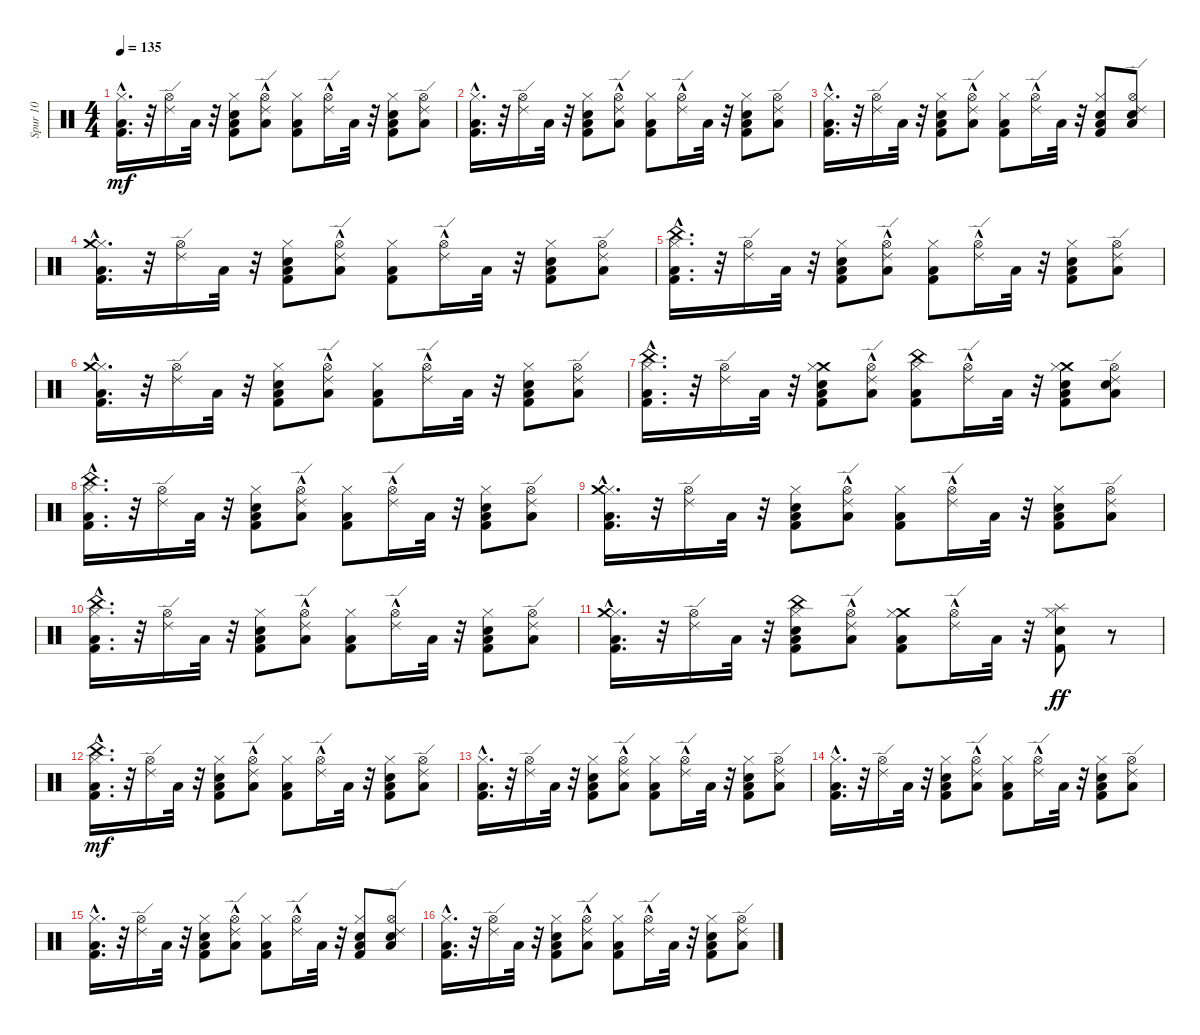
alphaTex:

\track ("Spur 10" "Spur 10") {instrument percussion}
\staff {score}
\articulation defaults
\ts (4 4)
\tempo 135
\clef neutral
\ks c
("Kick (hit) 2" "Low Tom (hit)" "Hi-Hat (closed)"{hac}).16{d dy mf} r.32 ("Ride (edge) 2" "Hi-Hat (open)").16 "Low Tom (hit)".32 r.32 ("Kick (hit) 2" "Hand Clap (hit)" "Low Tom (hit)" "Hi-Hat (closed)").8 ("Low Tom (hit)" "Hi-Hat (open)" "Ride (edge) 2"{hac}).8 ("Kick (hit) 2" "Low Tom (hit)" "Hi-Hat (closed)").8 ("Hi-Hat (open)" "Ride (edge) 2"{hac}).16 "Low Tom (hit)".32 r.32 ("Kick (hit) 2" "Hand Clap (hit)" "Low Tom (hit)" "Hi-Hat (closed)").8 ("Low Tom (hit)" "Hi-Hat (open)" "Ride (edge) 2").8 |
("Kick (hit) 2" "Low Tom (hit)" "Hi-Hat (closed)"{hac}).16{d} r.32 ("Ride (edge) 2" "Hi-Hat (open)").16 "Low Tom (hit)".32 r.32 ("Kick (hit) 2" "Hand Clap (hit)" "Low Tom (hit)" "Hi-Hat (closed)").8 ("Low Tom (hit)" "Hi-Hat (open)" "Ride (edge) 2"{hac}).8 ("Kick (hit) 2" "Low Tom (hit)" "Hi-Hat (closed)").8 ("Hi-Hat (open)" "Ride (edge) 2"{hac}).16 "Low Tom (hit)".32 r.32 ("Kick (hit) 2" "Hand Clap (hit)" "Low Tom (hit)" "Hi-Hat (closed)").8 ("Low Tom (hit)" "Hi-Hat (open)" "Ride (edge) 2").8 |
("Kick (hit) 2" "Low Tom (hit)" "Hi-Hat (closed)"{hac}).16{d} r.32 ("Ride (edge) 2" "Hi-Hat (open)").16 "Low Tom (hit)".32 r.32 ("Kick (hit) 2" "Hand Clap (hit)" "Low Tom (hit)" "Hi-Hat (closed)").8 ("Low Tom (hit)" "Hi-Hat (open)" "Ride (edge) 2"{hac}).8 ("Kick (hit) 2" "Low Tom (hit)" "Hi-Hat (closed)").8 ("Hi-Hat (open)" "Ride (edge) 2"{hac}).16 "Low Tom (hit)".32 r.32 ("Kick (hit) 2" "Hand Clap (hit)" "Low Tom (hit)" "Hi-Hat (closed)").8 ("Hand Clap (hit)" "Low Tom (hit)" "Hi-Hat (open)" "Ride (edge) 2").8 |
("Kick (hit) 2" "Low Tom (hit)" "Hi-Hat (closed)"{hac} "Crash medium (hit)").16{d} r.32 ("Ride (edge) 2" "Hi-Hat (open)").16 "Low Tom (hit)".32 r.32 ("Kick (hit) 2" "Hand Clap (hit)" "Low Tom (hit)" "Hi-Hat (closed)").8 ("Low Tom (hit)" "Hi-Hat (open)" "Ride (edge) 2"{hac}).8 ("Kick (hit) 2" "Low Tom (hit)" "Hi-Hat (closed)").8 ("Hi-Hat (open)" "Ride (edge) 2"{hac}).16 "Low Tom (hit)".32 r.32 ("Kick (hit) 2" "Hand Clap (hit)" "Low Tom (hit)" "Hi-Hat (closed)").8 ("Low Tom (hit)" "Hi-Hat (open)" "Ride (edge) 2").8 |
("Kick (hit) 2" "Low Tom (hit)" "Hi-Hat (closed)"{hac} "China (hit)").16{d} r.32 ("Ride (edge) 2" "Hi-Hat (open)").16 "Low Tom (hit)".32 r.32 ("Kick (hit) 2" "Hand Clap (hit)" "Low Tom (hit)" "Hi-Hat (closed)").8 ("Low Tom (hit)" "Hi-Hat (open)" "Ride (edge) 2"{hac}).8 ("Kick (hit) 2" "Low Tom (hit)" "Hi-Hat (closed)").8 ("Hi-Hat (open)" "Ride (edge) 2"{hac}).16 "Low Tom (hit)".32 r.32 ("Kick (hit) 2" "Hand Clap (hit)" "Low Tom (hit)" "Hi-Hat (closed)").8 ("Low Tom (hit)" "Hi-Hat (open)" "Ride (edge) 2").8 |
("Kick (hit) 2" "Low Tom (hit)" "Hi-Hat (closed)"{hac} "Crash medium (hit)").16{d} r.32 ("Ride (edge) 2" "Hi-Hat (open)").16 "Low Tom (hit)".32 r.32 ("Kick (hit) 2" "Hand Clap (hit)" "Low Tom (hit)" "Hi-Hat (closed)").8 ("Low Tom (hit)" "Hi-Hat (open)" "Ride (edge) 2"{hac}).8 ("Kick (hit) 2" "Low Tom (hit)" "Hi-Hat (closed)").8 ("Hi-Hat (open)" "Ride (edge) 2"{hac}).16 "Low Tom (hit)".32 r.32 ("Kick (hit) 2" "Hand Clap (hit)" "Low Tom (hit)" "Hi-Hat (closed)").8 ("Low Tom (hit)" "Hi-Hat (open)" "Ride (edge) 2").8 |
("Kick (hit) 2" "Low Tom (hit)" "Hi-Hat (closed)"{hac} "China (hit)").16{d} r.32 ("Ride (edge) 2" "Hi-Hat (open)").16 "Low Tom (hit)".32 r.32 ("Kick (hit) 2" "Hand Clap (hit)" "Low Tom (hit)" "Crash medium (hit)" "Hi-Hat (closed)").8 ("Low Tom (hit)" "Hi-Hat (open)" "Ride (edge) 2"{hac}).8 ("Kick (hit) 2" "Low Tom (hit)" "China (hit)" "Hi-Hat (closed)").8 ("Hi-Hat (open)" "Ride (edge) 2"{hac}).16 "Low Tom (hit)".32 r.32 ("Kick (hit) 2" "Hand Clap (hit)" "Low Tom (hit)" "Crash medium (hit)" "Hi-Hat (closed)").8 ("Hand Clap (hit)" "Low Tom (hit)" "Hi-Hat (open)" "Ride (edge) 2").8 |
("Kick (hit) 2" "Low Tom (hit)" "Hi-Hat (closed)"{hac} "China (hit)").16{d} r.32 ("Ride (edge) 2" "Hi-Hat (open)").16 "Low Tom (hit)".32 r.32 ("Kick (hit) 2" "Hand Clap (hit)" "Low Tom (hit)" "Hi-Hat (closed)").8 ("Low Tom (hit)" "Hi-Hat (open)" "Ride (edge) 2"{hac}).8 ("Kick (hit) 2" "Low Tom (hit)" "Hi-Hat (closed)").8 ("Hi-Hat (open)" "Ride (edge) 2"{hac}).16 "Low Tom (hit)".32 r.32 ("Kick (hit) 2" "Hand Clap (hit)" "Low Tom (hit)" "Hi-Hat (closed)").8 ("Low Tom (hit)" "Hi-Hat (open)" "Ride (edge) 2").8 |
("Kick (hit) 2" "Low Tom (hit)" "Hi-Hat (closed)"{hac} "Crash medium (hit)").16{d} r.32 ("Ride (edge) 2" "Hi-Hat (open)").16 "Low Tom (hit)".32 r.32 ("Kick (hit) 2" "Hand Clap (hit)" "Low Tom (hit)" "Hi-Hat (closed)").8 ("Low Tom (hit)" "Hi-Hat (open)" "Ride (edge) 2"{hac}).8 ("Kick (hit) 2" "Low Tom (hit)" "Hi-Hat (closed)").8 ("Hi-Hat (open)" "Ride (edge) 2"{hac}).16 "Low Tom (hit)".32 r.32 ("Kick (hit) 2" "Hand Clap (hit)" "Low Tom (hit)" "Hi-Hat (closed)").8 ("Low Tom (hit)" "Hi-Hat (open)" "Ride (edge) 2").8 |
("Kick (hit) 2" "Low Tom (hit)" "Hi-Hat (closed)"{hac} "China (hit)").16{d} r.32 ("Ride (edge) 2" "Hi-Hat (open)").16 "Low Tom (hit)".32 r.32 ("Kick (hit) 2" "Hand Clap (hit)" "Low Tom (hit)" "Hi-Hat (closed)").8 ("Low Tom (hit)" "Hi-Hat (open)" "Ride (edge) 2"{hac}).8 ("Kick (hit) 2" "Low Tom (hit)" "Hi-Hat (closed)").8 ("Hi-Hat (open)" "Ride (edge) 2"{hac}).16 "Low Tom (hit)".32 r.32 ("Kick (hit) 2" "Hand Clap (hit)" "Low Tom (hit)" "Hi-Hat (closed)").8 ("Low Tom (hit)" "Hi-Hat (open)" "Ride (edge) 2").8 |
("Kick (hit) 2" "Low Tom (hit)" "Hi-Hat (closed)"{hac} "Crash medium (hit)").16{d} r.32 ("Ride (edge) 2" "Hi-Hat (open)").16 "Low Tom (hit)".32 r.32 ("Kick (hit) 2" "Hand Clap (hit)" "Low Tom (hit)" "China (hit)" "Hi-Hat (closed)").8 ("Low Tom (hit)" "Hi-Hat (open)" "Ride (edge) 2"{hac}).8 ("Kick (hit) 2" "Low Tom (hit)" "Crash medium (hit)" "Hi-Hat (closed)").8 ("Hi-Hat (open)" "Ride (edge) 2"{hac}).16 "Low Tom (hit)".32 r.32 ("Kick (hit) 2" "Hand Clap (hit)" "Splash (hit)" "Hi-Hat (closed)").8{dy ff} r.8 |
("Kick (hit) 2" "Low Tom (hit)" "Hi-Hat (closed)"{hac} "China (hit)").16{d dy mf} r.32 ("Ride (edge) 2" "Hi-Hat (open)").16 "Low Tom (hit)".32 r.32 ("Kick (hit) 2" "Hand Clap (hit)" "Low Tom (hit)" "Hi-Hat (closed)").8 ("Low Tom (hit)" "Hi-Hat (open)" "Ride (edge) 2"{hac}).8 ("Kick (hit) 2" "Low Tom (hit)" "Hi-Hat (closed)").8 ("Hi-Hat (open)" "Ride (edge) 2"{hac}).16 "Low Tom (hit)".32 r.32 ("Kick (hit) 2" "Hand Clap (hit)" "Low Tom (hit)" "Hi-Hat (closed)").8 ("Low Tom (hit)" "Hi-Hat (open)" "Ride (edge) 2").8 |
("Kick (hit) 2" "Low Tom (hit)" "Hi-Hat (closed)"{hac}).16{d} r.32 ("Ride (edge) 2" "Hi-Hat (open)").16 "Low Tom (hit)".32 r.32 ("Kick (hit) 2" "Hand Clap (hit)" "Low Tom (hit)" "Hi-Hat (closed)").8 ("Low Tom (hit)" "Hi-Hat (open)" "Ride (edge) 2"{hac}).8 ("Kick (hit) 2" "Low Tom (hit)" "Hi-Hat (closed)").8 ("Hi-Hat (open)" "Ride (edge) 2"{hac}).16 "Low Tom (hit)".32 r.32 ("Kick (hit) 2" "Hand Clap (hit)" "Low Tom (hit)" "Hi-Hat (closed)").8 ("Low Tom (hit)" "Hi-Hat (open)" "Ride (edge) 2").8 |
("Kick (hit) 2" "Low Tom (hit)" "Hi-Hat (closed)"{hac}).16{d} r.32 ("Ride (edge) 2" "Hi-Hat (open)").16 "Low Tom (hit)".32 r.32 ("Kick (hit) 2" "Hand Clap (hit)" "Low Tom (hit)" "Hi-Hat (closed)").8 ("Low Tom (hit)" "Hi-Hat (open)" "Ride (edge) 2"{hac}).8 ("Kick (hit) 2" "Low Tom (hit)" "Hi-Hat (closed)").8 ("Hi-Hat (open)" "Ride (edge) 2"{hac}).16 "Low Tom (hit)".32 r.32 ("Kick (hit) 2" "Hand Clap (hit)" "Low Tom (hit)" "Hi-Hat (closed)").8 ("Low Tom (hit)" "Hi-Hat (open)" "Ride (edge) 2").8 |
("Kick (hit) 2" "Low Tom (hit)" "Hi-Hat (closed)"{hac}).16{d} r.32 ("Ride (edge) 2" "Hi-Hat (open)").16 "Low Tom (hit)".32 r.32 ("Kick (hit) 2" "Hand Clap (hit)" "Low Tom (hit)" "Hi-Hat (closed)").8 ("Low Tom (hit)" "Hi-Hat (open)" "Ride (edge) 2"{hac}).8 ("Kick (hit) 2" "Low Tom (hit)" "Hi-Hat (closed)").8 ("Hi-Hat (open)" "Ride (edge) 2"{hac}).16 "Low Tom (hit)".32 r.32 ("Kick (hit) 2" "Hand Clap (hit)" "Low Tom (hit)" "Hi-Hat (closed)").8 ("Hand Clap (hit)" "Low Tom (hit)" "Hi-Hat (open)" "Ride (edge) 2").8 |
("Kick (hit) 2" "Low Tom (hit)" "Hi-Hat (closed)"{hac}).16{d} r.32 ("Ride (edge) 2" "Hi-Hat (open)").16 "Low Tom (hit)".32 r.32 ("Kick (hit) 2" "Hand Clap (hit)" "Low Tom (hit)" "Hi-Hat (closed)").8 ("Low Tom (hit)" "Hi-Hat (open)" "Ride (edge) 2"{hac}).8 ("Kick (hit) 2" "Low Tom (hit)" "Hi-Hat (closed)").8 ("Hi-Hat (open)" "Ride (edge) 2"{hac}).16 "Low Tom (hit)".32 r.32 ("Kick (hit) 2" "Hand Clap (hit)" "Low Tom (hit)" "Hi-Hat (closed)").8 ("Low Tom (hit)" "Hi-Hat (open)" "Ride (edge) 2").8
